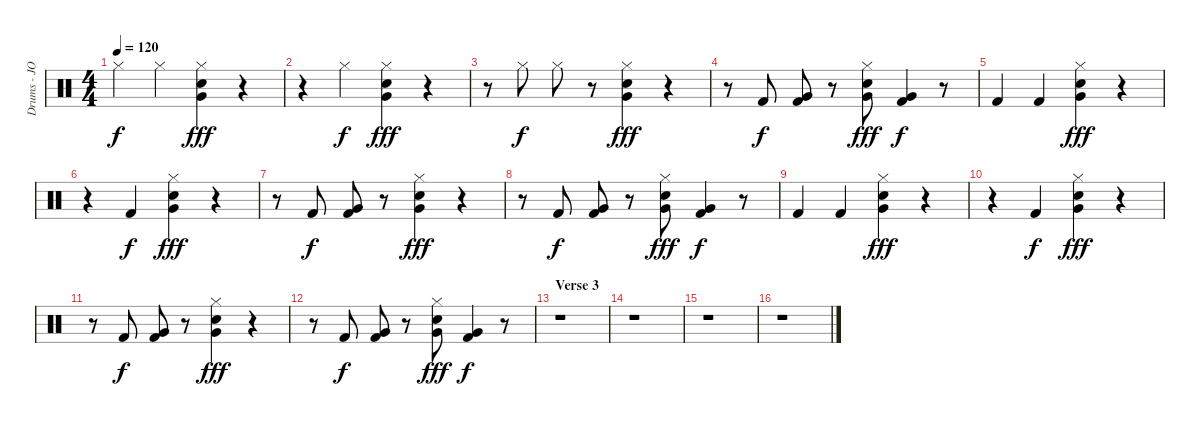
\track ("Drums - JOHN" "Drums - JO") {instrument percussion}
\staff {score}
\articulation defaults
\ts (4 4)
\tempo 120
\clef neutral
\ks c "Hi-Hat (closed)".4{dy f} "Hi-Hat (closed)".4
("Hi-Hat (closed)" "Very Low Tom (hit)" "Snare (hit) 2").4{dy fff} r.4 |
r.4 "Hi-Hat (closed)".4{dy f} ("Hi-Hat (closed)" "Very Low Tom (hit)" "Snare (hit) 2").4{dy fff} r.4 |
r.8 "Hi-Hat (closed)".8{dy f} "Hi-Hat (closed)".8 r.8 ("Hi-Hat (closed)" "Very Low Tom (hit)" "Snare (hit) 2").4{dy fff} r.4 |
r.8 "Kick (hit) 2".8{dy f} ("Very Low Tom (hit)" "Kick (hit) 2").8 r.8 ("Hi-Hat (closed)" "Very Low Tom (hit)" "Snare (hit) 2").8{dy fff} ("Very Low Tom (hit)" "Kick (hit) 2").4{dy f} r.8 |
"Kick (hit) 2".4 "Kick (hit) 2".4 ("Hi-Hat (closed)" "Very Low Tom (hit)" "Snare (hit) 2").4{dy fff} r.4 |
r.4 "Kick (hit) 2".4{dy f} ("Hi-Hat (closed)" "Very Low Tom (hit)" "Snare (hit) 2").4{dy fff} r.4 |
r.8 "Kick (hit) 2".8{dy f} ("Very Low Tom (hit)" "Kick (hit) 2").8 r.8 ("Hi-Hat (closed)" "Very Low Tom (hit)" "Snare (hit) 2").4{dy fff} r.4 |
r.8 "Kick (hit) 2".8{dy f} ("Very Low Tom (hit)" "Kick (hit) 2").8 r.8 ("Hi-Hat (closed)" "Very Low Tom (hit)" "Snare (hit) 2").8{dy fff} ("Very Low Tom (hit)" "Kick (hit) 2").4{dy f} r.8 |
"Kick (hit) 2".4 "Kick (hit) 2".4 ("Hi-Hat (closed)" "Very Low Tom (hit)" "Snare (hit) 2").4{dy fff} r.4 |
r.4 "Kick (hit) 2".4{dy f} ("Hi-Hat (closed)" "Very Low Tom (hit)" "Snare (hit) 2").4{dy fff} r.4 |
r.8 "Kick (hit) 2".8{dy f} ("Very Low Tom (hit)" "Kick (hit) 2").8 r.8 ("Hi-Hat (closed)" "Very Low Tom (hit)" "Snare (hit) 2").4{dy fff} r.4 |
r.8 "Kick (hit) 2".8{dy f} ("Very Low Tom (hit)" "Kick (hit) 2").8 r.8 ("Hi-Hat (closed)" "Very Low Tom (hit)" "Snare (hit) 2").8{dy fff} ("Very Low Tom (hit)" "Kick (hit) 2").4{dy f} r.8 |
\section ("" "Verse 3")
r.1 |
r.1 |
r.1 |
r.1
